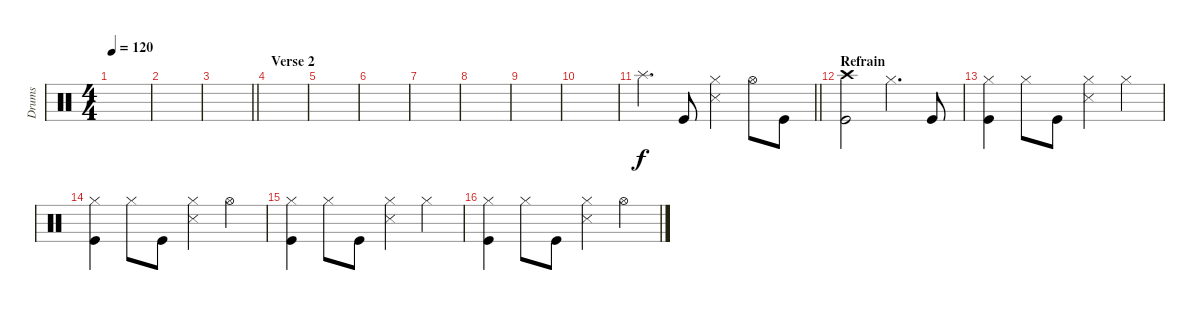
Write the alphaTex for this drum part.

\track ("Drums" "Drums") {instrument percussion}
\staff {score}
\articulation defaults
\ts (4 4)
\tempo 120
\clef neutral
\ks c
|
|
\barLineRight lightlight
|
\section ("" "Verse 2")
|
|
|
|
|
|
|
\barLineRight lightlight "Splash (hit)".4{d} "Kick (hit)".8
("Snare (side stick) 3" "Hi-Hat (closed)").4 "Hi-Hat (open)".8 "Kick (hit)".8 |
\section ("" "Refrain")
("Kick (hit)" "Crash high (hit)").2 "Hi-Hat (closed)".4{d} "Kick (hit)".8 |
("Kick (hit)" "Hi-Hat (closed)").4 "Hi-Hat (closed)".8 "Kick (hit)".8 ("Snare (side stick) 3" "Hi-Hat (closed)").4 "Hi-Hat (closed)".4 |
("Kick (hit)" "Hi-Hat (closed)").4 "Hi-Hat (closed)".8 "Kick (hit)".8 ("Snare (side stick) 3" "Hi-Hat (closed)").4 "Hi-Hat (open)".4 |
("Kick (hit)" "Hi-Hat (closed)").4 "Hi-Hat (closed)".8 "Kick (hit)".8 ("Snare (side stick) 3" "Hi-Hat (closed)").4 "Hi-Hat (closed)".4 |
("Kick (hit)" "Hi-Hat (closed)").4 "Hi-Hat (closed)".8 "Kick (hit)".8 ("Snare (side stick) 3" "Hi-Hat (closed)").4 "Hi-Hat (open)".4
